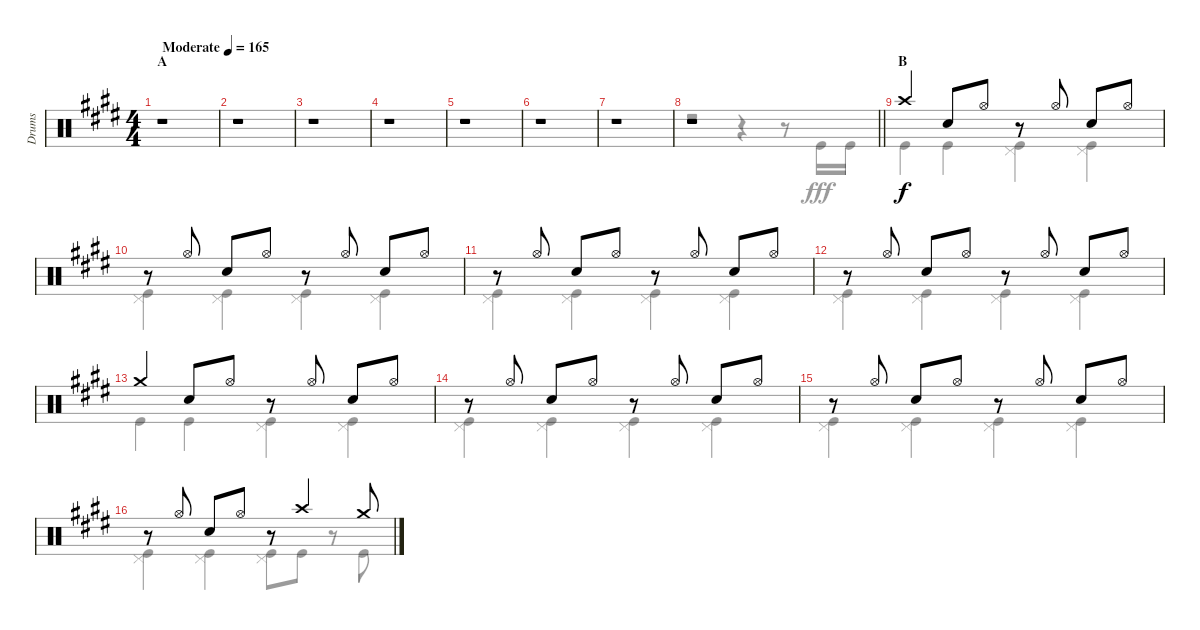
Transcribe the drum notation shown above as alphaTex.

\track ("Drums" "Drums") {instrument percussion}
\staff {score}
\articulation defaults
\voice
\ts (4 4)
\section ("" "A")
\tempo (165 "Moderate")
\clef neutral
\ks e
r.1{dy f} |
r.1 |
r.1 |
r.1 |
r.1 |
r.1 |
r.1 |
\barLineRight lightlight
r.1 |
\section ("" "B")
"Crash high (hit)".4 "Snare (hit) 2".8 "Hi-Hat (open)".8 r.8 "Hi-Hat (open)".8 "Snare (hit) 2".8 "Hi-Hat (open)".8 |
r.8 "Hi-Hat (open)".8 "Snare (hit) 2".8 "Hi-Hat (open)".8 r.8 "Hi-Hat (open)".8 "Snare (hit) 2".8 "Hi-Hat (open)".8 |
r.8 "Hi-Hat (open)".8 "Snare (hit) 2".8 "Hi-Hat (open)".8 r.8 "Hi-Hat (open)".8 "Snare (hit) 2".8 "Hi-Hat (open)".8 |
r.8 "Hi-Hat (open)".8 "Snare (hit) 2".8 "Hi-Hat (open)".8 r.8 "Hi-Hat (open)".8 "Snare (hit) 2".8 "Hi-Hat (open)".8 |
"Crash medium (hit)".4 "Snare (hit) 2".8 "Hi-Hat (open)".8 r.8 "Hi-Hat (open)".8 "Snare (hit) 2".8 "Hi-Hat (open)".8 |
r.8 "Hi-Hat (open)".8 "Snare (hit) 2".8 "Hi-Hat (open)".8 r.8 "Hi-Hat (open)".8 "Snare (hit) 2".8 "Hi-Hat (open)".8 |
r.8 "Hi-Hat (open)".8 "Snare (hit) 2".8 "Hi-Hat (open)".8 r.8 "Hi-Hat (open)".8 "Snare (hit) 2".8 "Hi-Hat (open)".8 |
r.8 "Hi-Hat (open)".8 "Snare (hit) 2".8 "Hi-Hat (open)".8 r.8 "Crash high (hit)".4 "Crash medium (hit)".8
\voice
\clef neutral
\ottava regular
\simile none
\ks e
r.1{dy fff} |
r.1 |
r.1 |
r.1 |
r.1 |
r.1 |
r.1 |
\barLineRight lightlight
r.2 r.4 r.8 "Kick (hit)".16 "Kick (hit)".16 |
"Kick (hit)".4 "Kick (hit)".4 ("Pedal Hi-Hat (hit)" "Kick (hit)").4 ("Pedal Hi-Hat (hit)" "Kick (hit)").4 |
("Pedal Hi-Hat (hit)" "Kick (hit)").4 ("Pedal Hi-Hat (hit)" "Kick (hit)").4 ("Pedal Hi-Hat (hit)" "Kick (hit)").4 ("Pedal Hi-Hat (hit)" "Kick (hit)").4 |
("Pedal Hi-Hat (hit)" "Kick (hit)").4 ("Pedal Hi-Hat (hit)" "Kick (hit)").4 ("Pedal Hi-Hat (hit)" "Kick (hit)").4 ("Pedal Hi-Hat (hit)" "Kick (hit)").4 |
("Pedal Hi-Hat (hit)" "Kick (hit)").4 ("Pedal Hi-Hat (hit)" "Kick (hit)").4 ("Pedal Hi-Hat (hit)" "Kick (hit)").4 ("Pedal Hi-Hat (hit)" "Kick (hit)").4 |
"Kick (hit)".4 "Kick (hit)".4 ("Pedal Hi-Hat (hit)" "Kick (hit)").4 ("Pedal Hi-Hat (hit)" "Kick (hit)").4 |
("Pedal Hi-Hat (hit)" "Kick (hit)").4 ("Pedal Hi-Hat (hit)" "Kick (hit)").4 ("Pedal Hi-Hat (hit)" "Kick (hit)").4 ("Pedal Hi-Hat (hit)" "Kick (hit)").4 |
("Pedal Hi-Hat (hit)" "Kick (hit)").4 ("Pedal Hi-Hat (hit)" "Kick (hit)").4 ("Pedal Hi-Hat (hit)" "Kick (hit)").4 ("Pedal Hi-Hat (hit)" "Kick (hit)").4 |
("Pedal Hi-Hat (hit)" "Kick (hit)").4 ("Pedal Hi-Hat (hit)" "Kick (hit)").4 ("Pedal Hi-Hat (hit)" "Kick (hit)").8 "Kick (hit)".8 r.8 "Kick (hit)".8
